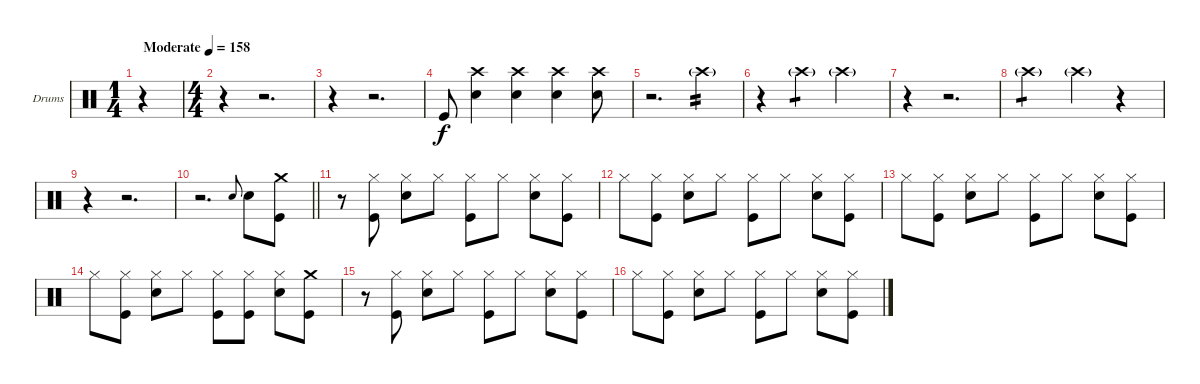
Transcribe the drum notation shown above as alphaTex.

\bracketExtendMode groupsimilarinstruments
\firstSystemTrackNameOrientation horizontal
\otherSystemsTrackNameOrientation horizontal
\track ("Drumkit" "Drums") {instrument percussion}
\staff {score}
\articulation defaults
\voice
\ts (1 4)
\beaming (8 2)
\tempo (158 "Moderate")
\clef neutral
\ks c
r.4{dy f} |
\ts (4 4)
\beaming (8 2 2 2 2)
r.4 r.2{d} |
r.4 r.2{d} |
"Kick (hit)".8 ("Crash high (hit)" "Snare (hit) 2").4 ("Crash high (hit)" "Snare (hit) 2").4 ("Crash high (hit)" "Snare (hit) 2").4 ("Crash high (hit)" "Snare (hit) 2").8 |
r.2{d} "Crash high (hit)"{g}.4{tp 2} |
r.4 "Crash high (hit)"{g}.4{tp 1} "Crash high (hit)"{g}.2 |
r.4 r.2{d} |
"Crash high (hit)"{g}.2{tp 1} "Crash high (hit)"{g}.4 r.4 |
r.4 r.2{d} |
\barLineRight lightlight
r.2{d} "Snare (hit) 2".8{gr onbeat} "Snare (hit) 2".8 ("Crash medium (hit)" "Kick (hit)").8 |
\section ("" "")
r.8 ("Hi-Hat (closed)" "Kick (hit)").8 ("Hi-Hat (closed)" "Snare (hit) 2").8 "Hi-Hat (closed)".8 ("Hi-Hat (closed)" "Kick (hit)").8 "Hi-Hat (closed)".8 ("Hi-Hat (closed)" "Snare (hit) 2").8 ("Hi-Hat (closed)" "Kick (hit)").8 |
"Hi-Hat (closed)".8 ("Hi-Hat (closed)" "Kick (hit)").8 ("Hi-Hat (closed)" "Snare (hit) 2").8 "Hi-Hat (closed)".8 ("Hi-Hat (closed)" "Kick (hit)").8 "Hi-Hat (closed)".8 ("Hi-Hat (closed)" "Snare (hit) 2").8 ("Hi-Hat (closed)" "Kick (hit)").8 |
"Hi-Hat (closed)".8 ("Hi-Hat (closed)" "Kick (hit)").8 ("Hi-Hat (closed)" "Snare (hit) 2").8 "Hi-Hat (closed)".8 ("Hi-Hat (closed)" "Kick (hit)").8 "Hi-Hat (closed)".8 ("Hi-Hat (closed)" "Snare (hit) 2").8 ("Hi-Hat (closed)" "Kick (hit)").8 |
"Hi-Hat (closed)".8 ("Hi-Hat (closed)" "Kick (hit)").8 ("Hi-Hat (closed)" "Snare (hit) 2").8 "Hi-Hat (closed)".8 ("Hi-Hat (closed)" "Kick (hit)").8 ("Hi-Hat (closed)" "Kick (hit)").8 ("Hi-Hat (closed)" "Snare (hit) 2").8 ("Crash medium (hit)" "Kick (hit)").8 |
r.8 ("Hi-Hat (closed)" "Kick (hit)").8 ("Hi-Hat (closed)" "Snare (hit) 2").8 "Hi-Hat (closed)".8 ("Hi-Hat (closed)" "Kick (hit)").8 "Hi-Hat (closed)".8 ("Hi-Hat (closed)" "Snare (hit) 2").8 ("Hi-Hat (closed)" "Kick (hit)").8 |
"Hi-Hat (closed)".8 ("Hi-Hat (closed)" "Kick (hit)").8 ("Hi-Hat (closed)" "Snare (hit) 2").8 "Hi-Hat (closed)".8 ("Hi-Hat (closed)" "Kick (hit)").8 "Hi-Hat (closed)".8 ("Hi-Hat (closed)" "Snare (hit) 2").8 ("Hi-Hat (closed)" "Kick (hit)").8
\voice
\clef neutral
\ottava regular
\simile none
\ks c
r.4{dy mf} |
|
|
|
|
|
|
|
|
\barLineRight lightlight
|
|
|
|
|
|
